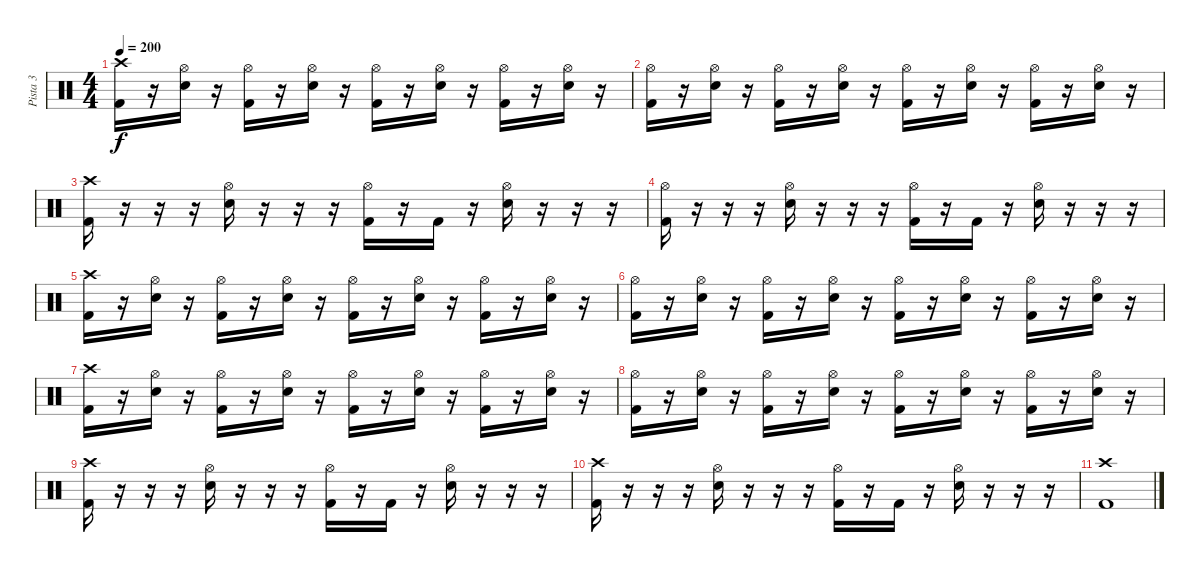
\track ("Pista 3" "Pista 3") {instrument percussion}
\staff {score}
\articulation defaults
\ts (4 4)
\tempo 200
\clef neutral
\ks c
("Crash high (hit)" "Kick (hit) 2").16{dy f} r.16 ("Hi-Hat (open)" "Electric Snare (hit)").16 r.16 ("Hi-Hat (open)" "Kick (hit) 2").16 r.16 ("Hi-Hat (open)" "Electric Snare (hit)").16 r.16 ("Hi-Hat (open)" "Kick (hit) 2").16 r.16 ("Hi-Hat (open)" "Electric Snare (hit)").16 r.16 ("Hi-Hat (open)" "Kick (hit) 2").16 r.16 ("Hi-Hat (open)" "Electric Snare (hit)").16 r.16 |
("Hi-Hat (open)" "Kick (hit) 2").16 r.16 ("Hi-Hat (open)" "Electric Snare (hit)").16 r.16 ("Hi-Hat (open)" "Kick (hit) 2").16 r.16 ("Hi-Hat (open)" "Electric Snare (hit)").16 r.16 ("Hi-Hat (open)" "Kick (hit) 2").16 r.16 ("Hi-Hat (open)" "Electric Snare (hit)").16 r.16 ("Hi-Hat (open)" "Kick (hit) 2").16 r.16 ("Hi-Hat (open)" "Electric Snare (hit)").16 r.16 |
("Crash high (hit)" "Kick (hit) 2").16 r.16 r.16 r.16 ("Hi-Hat (open)" "Electric Snare (hit)").16 r.16 r.16 r.16 ("Hi-Hat (open)" "Kick (hit) 2").16 r.16 "Kick (hit) 2".16 r.16 ("Hi-Hat (open)" "Electric Snare (hit)").16 r.16 r.16 r.16 |
("Hi-Hat (open)" "Kick (hit) 2").16 r.16 r.16 r.16 ("Hi-Hat (open)" "Electric Snare (hit)").16 r.16 r.16 r.16 ("Hi-Hat (open)" "Kick (hit) 2").16 r.16 "Kick (hit) 2".16 r.16 ("Hi-Hat (open)" "Electric Snare (hit)").16 r.16 r.16 r.16 |
("Crash high (hit)" "Kick (hit) 2").16 r.16 ("Hi-Hat (open)" "Electric Snare (hit)").16 r.16 ("Hi-Hat (open)" "Kick (hit) 2").16 r.16 ("Hi-Hat (open)" "Electric Snare (hit)").16 r.16 ("Hi-Hat (open)" "Kick (hit) 2").16 r.16 ("Hi-Hat (open)" "Electric Snare (hit)").16 r.16 ("Hi-Hat (open)" "Kick (hit) 2").16 r.16 ("Hi-Hat (open)" "Electric Snare (hit)").16 r.16 |
("Hi-Hat (open)" "Kick (hit) 2").16 r.16 ("Hi-Hat (open)" "Electric Snare (hit)").16 r.16 ("Hi-Hat (open)" "Kick (hit) 2").16 r.16 ("Hi-Hat (open)" "Electric Snare (hit)").16 r.16 ("Hi-Hat (open)" "Kick (hit) 2").16 r.16 ("Hi-Hat (open)" "Electric Snare (hit)").16 r.16 ("Hi-Hat (open)" "Kick (hit) 2").16 r.16 ("Hi-Hat (open)" "Electric Snare (hit)").16 r.16 |
("Crash high (hit)" "Kick (hit) 2").16 r.16 ("Hi-Hat (open)" "Electric Snare (hit)").16 r.16 ("Hi-Hat (open)" "Kick (hit) 2").16 r.16 ("Hi-Hat (open)" "Electric Snare (hit)").16 r.16 ("Hi-Hat (open)" "Kick (hit) 2").16 r.16 ("Hi-Hat (open)" "Electric Snare (hit)").16 r.16 ("Hi-Hat (open)" "Kick (hit) 2").16 r.16 ("Hi-Hat (open)" "Electric Snare (hit)").16 r.16 |
("Hi-Hat (open)" "Kick (hit) 2").16 r.16 ("Hi-Hat (open)" "Electric Snare (hit)").16 r.16 ("Hi-Hat (open)" "Kick (hit) 2").16 r.16 ("Hi-Hat (open)" "Electric Snare (hit)").16 r.16 ("Hi-Hat (open)" "Kick (hit) 2").16 r.16 ("Hi-Hat (open)" "Electric Snare (hit)").16 r.16 ("Hi-Hat (open)" "Kick (hit) 2").16 r.16 ("Hi-Hat (open)" "Electric Snare (hit)").16 r.16 |
("Crash high (hit)" "Kick (hit) 2").16 r.16 r.16 r.16 ("Hi-Hat (open)" "Electric Snare (hit)").16 r.16 r.16 r.16 ("Hi-Hat (open)" "Kick (hit) 2").16 r.16 "Kick (hit) 2".16 r.16 ("Hi-Hat (open)" "Electric Snare (hit)").16 r.16 r.16 r.16 |
("Crash high (hit)" "Kick (hit) 2").16 r.16 r.16 r.16 ("Hi-Hat (open)" "Electric Snare (hit)").16 r.16 r.16 r.16 ("Hi-Hat (open)" "Kick (hit) 2").16 r.16 "Kick (hit) 2".16 r.16 ("Hi-Hat (open)" "Electric Snare (hit)").16 r.16 r.16 r.16 |
("Crash high (hit)" "Kick (hit) 2").1
